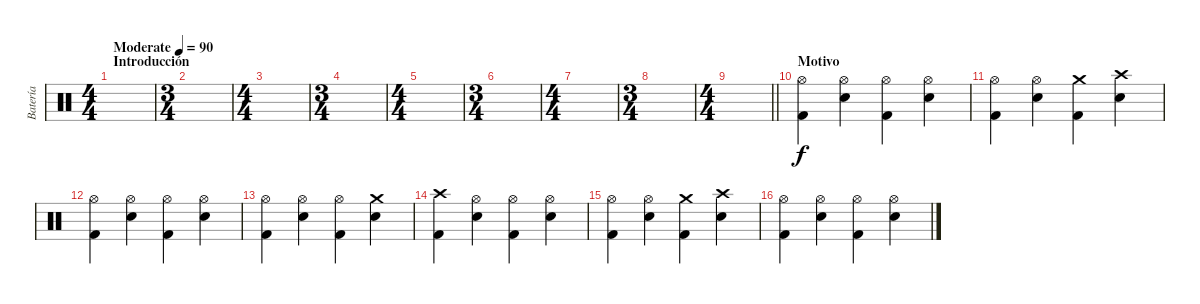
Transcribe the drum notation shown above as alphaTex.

\track ("Batería" "Batería") {instrument percussion}
\staff {score}
\articulation defaults
\ts (4 4)
\section ("" "Introducción")
\tempo (90 "Moderate")
\clef neutral
\ks c
|
\ts (3 4)
|
\ts (4 4)
|
\ts (3 4)
|
\ts (4 4)
|
\ts (3 4)
|
\ts (4 4)
|
\ts (3 4)
|
\ts (4 4)
\barLineRight lightlight
|
\section ("" "Motivo")
("Hi-Hat (open)" "Kick (hit) 2").4 ("Hi-Hat (open)" "Snare (hit) 2").4 ("Hi-Hat (open)" "Kick (hit) 2").4 ("Hi-Hat (open)" "Snare (hit) 2").4 |
("Hi-Hat (open)" "Kick (hit) 2").4 ("Hi-Hat (open)" "Snare (hit) 2").4 ("Crash medium (hit)" "Kick (hit) 2").4 ("Crash high (hit)" "Snare (hit) 2").4 |
("Hi-Hat (open)" "Kick (hit) 2").4 ("Hi-Hat (open)" "Snare (hit) 2").4 ("Hi-Hat (open)" "Kick (hit) 2").4 ("Hi-Hat (open)" "Snare (hit) 2").4 |
("Hi-Hat (open)" "Kick (hit) 2").4 ("Hi-Hat (open)" "Snare (hit) 2").4 ("Hi-Hat (open)" "Kick (hit) 2").4 ("Crash medium (hit)" "Snare (hit) 2").4 |
("Crash high (hit)" "Kick (hit) 2").4 ("Hi-Hat (open)" "Snare (hit) 2").4 ("Hi-Hat (open)" "Kick (hit) 2").4 ("Hi-Hat (open)" "Snare (hit) 2").4 |
("Hi-Hat (open)" "Kick (hit) 2").4 ("Hi-Hat (open)" "Snare (hit) 2").4 ("Crash medium (hit)" "Kick (hit) 2").4 ("Crash high (hit)" "Snare (hit) 2").4 |
("Hi-Hat (open)" "Kick (hit) 2").4 ("Hi-Hat (open)" "Snare (hit) 2").4 ("Hi-Hat (open)" "Kick (hit) 2").4 ("Hi-Hat (open)" "Snare (hit) 2").4
